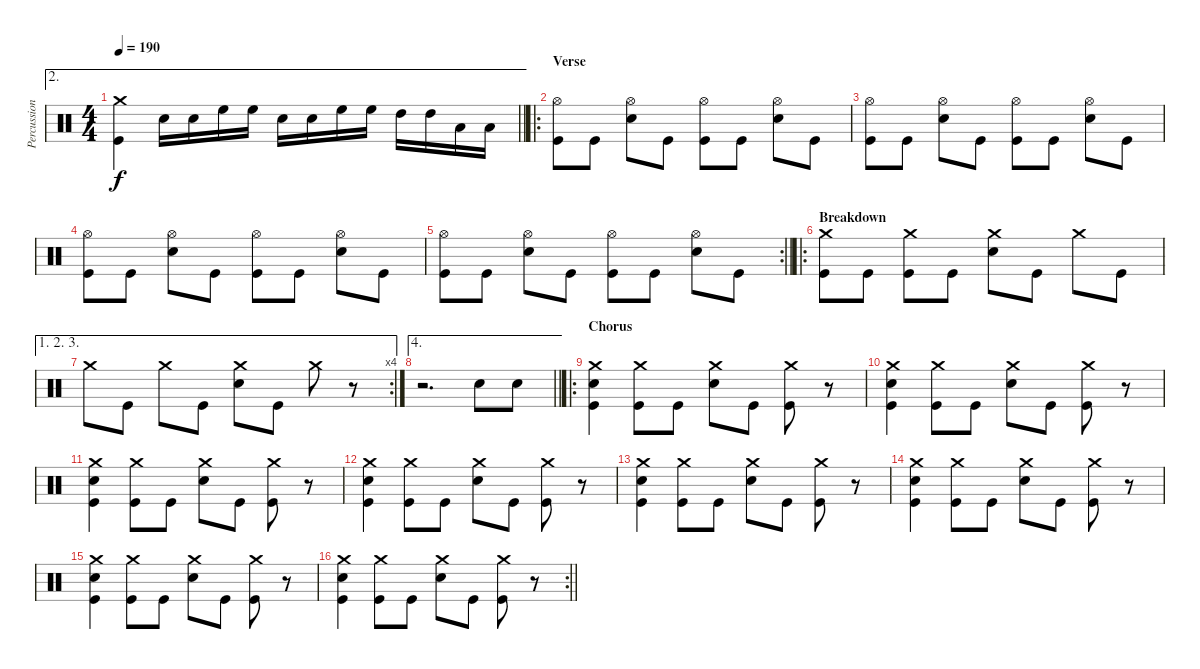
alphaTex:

\track ("Percussion" "Percussion") {instrument percussion}
\staff {score}
\articulation defaults
\ae 2
\ts (4 4)
\tempo 190
\clef neutral
\barLineRight lightlight
\ks c
("Crash medium (hit)" "Kick (hit)").4{dy f} "Snare (hit) 2".16 "Snare (hit) 2".16 "High Floor Tom (hit)".16 "High Floor Tom (hit)".16 "Snare (hit) 2".16 "Snare (hit) 2".16 "High Floor Tom (hit)".16 "High Floor Tom (hit)".16 "High Tom (hit)".16 "High Tom (hit)".16 "Low Tom (hit)".16 "Low Tom (hit)".16 |
\ro
\section ("" "Verse")
("Hi-Hat (open)" "Kick (hit)").8 "Kick (hit)".8 ("Hi-Hat (open)" "Snare (hit) 2").8 "Kick (hit)".8 ("Hi-Hat (open)" "Kick (hit)").8 "Kick (hit)".8 ("Hi-Hat (open)" "Snare (hit) 2").8 "Kick (hit)".8 |
("Hi-Hat (open)" "Kick (hit)").8 "Kick (hit)".8 ("Hi-Hat (open)" "Snare (hit) 2").8 "Kick (hit)".8 ("Hi-Hat (open)" "Kick (hit)").8 "Kick (hit)".8 ("Hi-Hat (open)" "Snare (hit) 2").8 "Kick (hit)".8 |
("Hi-Hat (open)" "Kick (hit)").8 "Kick (hit)".8 ("Hi-Hat (open)" "Snare (hit) 2").8 "Kick (hit)".8 ("Hi-Hat (open)" "Kick (hit)").8 "Kick (hit)".8 ("Hi-Hat (open)" "Snare (hit) 2").8 "Kick (hit)".8 |
\rc 2
\barLineRight lightlight
("Hi-Hat (open)" "Kick (hit)").8 "Kick (hit)".8 ("Hi-Hat (open)" "Snare (hit) 2").8 "Kick (hit)".8 ("Hi-Hat (open)" "Kick (hit)").8 "Kick (hit)".8 ("Hi-Hat (open)" "Snare (hit) 2").8 "Kick (hit)".8 |
\ro
\section ("" "Breakdown")
("Crash medium (hit)" "Kick (hit)").8 "Kick (hit)".8 ("Crash medium (hit)" "Kick (hit)").8 "Kick (hit)".8 ("Crash medium (hit)" "Snare (hit) 2").8 "Kick (hit)".8 "Crash medium (hit)".8 "Kick (hit)".8 |
\ae (1 2 3)
\rc 4 "Crash medium (hit)".8 "Kick (hit)".8 "Crash medium (hit)".8 "Kick (hit)".8
("Crash medium (hit)" "Snare (hit) 2").8 "Kick (hit)".8 "Crash medium (hit)".8 r.8 |
\ae 4
\barLineRight lightlight
r.2{d} "Snare (hit) 2".8 "Snare (hit) 2".8 |
\ro
\section ("" "Chorus")
("Crash medium (hit)" "Snare (hit) 2" "Kick (hit)").4 ("Crash medium (hit)" "Kick (hit)").8 "Kick (hit)".8 ("Crash medium (hit)" "Snare (hit) 2").8 "Kick (hit)".8 ("Crash medium (hit)" "Kick (hit)").8 r.8 |
("Crash medium (hit)" "Snare (hit) 2" "Kick (hit)").4 ("Crash medium (hit)" "Kick (hit)").8 "Kick (hit)".8 ("Crash medium (hit)" "Snare (hit) 2").8 "Kick (hit)".8 ("Crash medium (hit)" "Kick (hit)").8 r.8 |
("Crash medium (hit)" "Snare (hit) 2" "Kick (hit)").4 ("Crash medium (hit)" "Kick (hit)").8 "Kick (hit)".8 ("Crash medium (hit)" "Snare (hit) 2").8 "Kick (hit)".8 ("Crash medium (hit)" "Kick (hit)").8 r.8 |
("Crash medium (hit)" "Snare (hit) 2" "Kick (hit)").4 ("Crash medium (hit)" "Kick (hit)").8 "Kick (hit)".8 ("Crash medium (hit)" "Snare (hit) 2").8 "Kick (hit)".8 ("Crash medium (hit)" "Kick (hit)").8 r.8 |
("Crash medium (hit)" "Snare (hit) 2" "Kick (hit)").4 ("Crash medium (hit)" "Kick (hit)").8 "Kick (hit)".8 ("Crash medium (hit)" "Snare (hit) 2").8 "Kick (hit)".8 ("Crash medium (hit)" "Kick (hit)").8 r.8 |
("Crash medium (hit)" "Snare (hit) 2" "Kick (hit)").4 ("Crash medium (hit)" "Kick (hit)").8 "Kick (hit)".8 ("Crash medium (hit)" "Snare (hit) 2").8 "Kick (hit)".8 ("Crash medium (hit)" "Kick (hit)").8 r.8 |
("Crash medium (hit)" "Snare (hit) 2" "Kick (hit)").4 ("Crash medium (hit)" "Kick (hit)").8 "Kick (hit)".8 ("Crash medium (hit)" "Snare (hit) 2").8 "Kick (hit)".8 ("Crash medium (hit)" "Kick (hit)").8 r.8 |
\rc 2
\barLineRight lightlight
("Crash medium (hit)" "Snare (hit) 2" "Kick (hit)").4 ("Crash medium (hit)" "Kick (hit)").8 "Kick (hit)".8 ("Crash medium (hit)" "Snare (hit) 2").8 "Kick (hit)".8 ("Crash medium (hit)" "Kick (hit)").8 r.8
